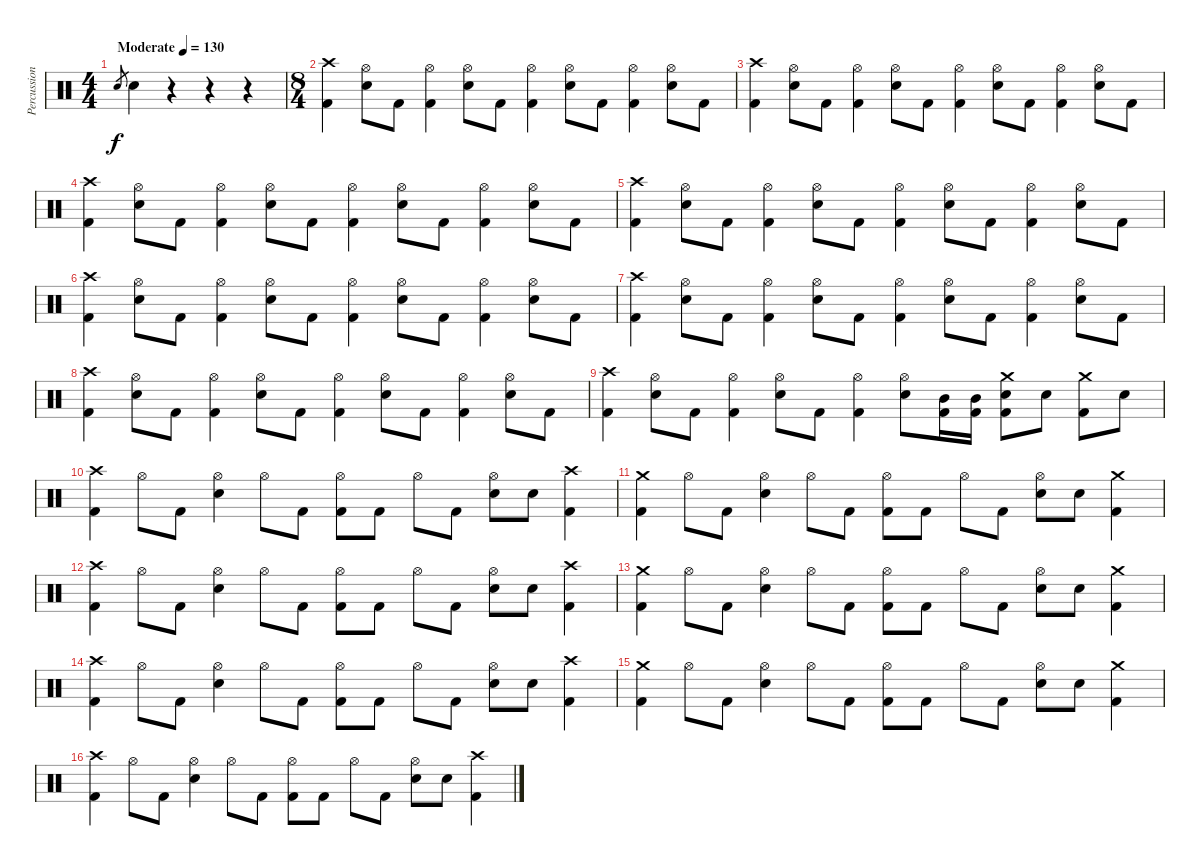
\track ("Percussion" "Percussion") {instrument percussion}
\staff {score}
\articulation defaults
\ts (4 4)
\tempo (130 "Moderate")
\clef neutral
\ks c "Snare (hit) 2".8{gr dy f} "Snare (hit) 2".4
r.4 r.4 r.4 |
\ts (8 4)
("Crash high (hit)" "Kick (hit) 2").4 ("Hi-Hat (open)" "Snare (hit) 2").8 "Kick (hit) 2".8 ("Hi-Hat (open)" "Kick (hit) 2").4 ("Hi-Hat (open)" "Snare (hit) 2").8 "Kick (hit) 2".8 ("Hi-Hat (open)" "Kick (hit) 2").4 ("Hi-Hat (open)" "Snare (hit) 2").8 "Kick (hit) 2".8 ("Hi-Hat (open)" "Kick (hit) 2").4 ("Hi-Hat (open)" "Snare (hit) 2").8 "Kick (hit) 2".8 |
("Crash high (hit)" "Kick (hit) 2").4 ("Hi-Hat (open)" "Snare (hit) 2").8 "Kick (hit) 2".8 ("Hi-Hat (open)" "Kick (hit) 2").4 ("Hi-Hat (open)" "Snare (hit) 2").8 "Kick (hit) 2".8 ("Hi-Hat (open)" "Kick (hit) 2").4 ("Hi-Hat (open)" "Snare (hit) 2").8 "Kick (hit) 2".8 ("Hi-Hat (open)" "Kick (hit) 2").4 ("Hi-Hat (open)" "Snare (hit) 2").8 "Kick (hit) 2".8 |
("Crash high (hit)" "Kick (hit) 2").4 ("Hi-Hat (open)" "Snare (hit) 2").8 "Kick (hit) 2".8 ("Hi-Hat (open)" "Kick (hit) 2").4 ("Hi-Hat (open)" "Snare (hit) 2").8 "Kick (hit) 2".8 ("Hi-Hat (open)" "Kick (hit) 2").4 ("Hi-Hat (open)" "Snare (hit) 2").8 "Kick (hit) 2".8 ("Hi-Hat (open)" "Kick (hit) 2").4 ("Hi-Hat (open)" "Snare (hit) 2").8 "Kick (hit) 2".8 |
("Crash high (hit)" "Kick (hit) 2").4 ("Hi-Hat (open)" "Snare (hit) 2").8 "Kick (hit) 2".8 ("Hi-Hat (open)" "Kick (hit) 2").4 ("Hi-Hat (open)" "Snare (hit) 2").8 "Kick (hit) 2".8 ("Hi-Hat (open)" "Kick (hit) 2").4 ("Hi-Hat (open)" "Snare (hit) 2").8 "Kick (hit) 2".8 ("Hi-Hat (open)" "Kick (hit) 2").4 ("Hi-Hat (open)" "Snare (hit) 2").8 "Kick (hit) 2".8 |
("Crash high (hit)" "Kick (hit) 2").4 ("Hi-Hat (open)" "Snare (hit) 2").8 "Kick (hit) 2".8 ("Hi-Hat (open)" "Kick (hit) 2").4 ("Hi-Hat (open)" "Snare (hit) 2").8 "Kick (hit) 2".8 ("Hi-Hat (open)" "Kick (hit) 2").4 ("Hi-Hat (open)" "Snare (hit) 2").8 "Kick (hit) 2".8 ("Hi-Hat (open)" "Kick (hit) 2").4 ("Hi-Hat (open)" "Snare (hit) 2").8 "Kick (hit) 2".8 |
("Crash high (hit)" "Kick (hit) 2").4 ("Hi-Hat (open)" "Snare (hit) 2").8 "Kick (hit) 2".8 ("Hi-Hat (open)" "Kick (hit) 2").4 ("Hi-Hat (open)" "Snare (hit) 2").8 "Kick (hit) 2".8 ("Hi-Hat (open)" "Kick (hit) 2").4 ("Hi-Hat (open)" "Snare (hit) 2").8 "Kick (hit) 2".8 ("Hi-Hat (open)" "Kick (hit) 2").4 ("Hi-Hat (open)" "Snare (hit) 2").8 "Kick (hit) 2".8 |
("Crash high (hit)" "Kick (hit) 2").4 ("Hi-Hat (open)" "Snare (hit) 2").8 "Kick (hit) 2".8 ("Hi-Hat (open)" "Kick (hit) 2").4 ("Hi-Hat (open)" "Snare (hit) 2").8 "Kick (hit) 2".8 ("Hi-Hat (open)" "Kick (hit) 2").4 ("Hi-Hat (open)" "Snare (hit) 2").8 "Kick (hit) 2".8 ("Hi-Hat (open)" "Kick (hit) 2").4 ("Hi-Hat (open)" "Snare (hit) 2").8 "Kick (hit) 2".8 |
("Crash high (hit)" "Kick (hit) 2").4 ("Hi-Hat (open)" "Snare (hit) 2").8 "Kick (hit) 2".8 ("Hi-Hat (open)" "Kick (hit) 2").4 ("Hi-Hat (open)" "Snare (hit) 2").8 "Kick (hit) 2".8 ("Hi-Hat (open)" "Kick (hit) 2").4 ("Hi-Hat (open)" "Snare (hit) 2").8 ("Mid Tom (hit)" "Kick (hit) 2").16 ("Mid Tom (hit)" "Kick (hit) 2").16 ("Crash medium (hit)" "Snare (hit) 2" "Kick (hit) 2").8 "Snare (hit) 2".8 ("Crash medium (hit)" "Kick (hit) 2").8 "Snare (hit) 2".8 |
("Crash high (hit)" "Kick (hit) 2").4 "Hi-Hat (open)".8 "Kick (hit) 2".8 ("Hi-Hat (open)" "Snare (hit) 2").4 "Hi-Hat (open)".8 "Kick (hit) 2".8 ("Hi-Hat (open)" "Kick (hit) 2").8 "Kick (hit) 2".8 "Hi-Hat (open)".8 "Kick (hit) 2".8 ("Hi-Hat (open)" "Snare (hit) 2").8 "Snare (hit) 2".8 ("Crash high (hit)" "Kick (hit) 2").4 |
("Crash medium (hit)" "Kick (hit) 2").4 "Hi-Hat (open)".8 "Kick (hit) 2".8 ("Hi-Hat (open)" "Snare (hit) 2").4 "Hi-Hat (open)".8 "Kick (hit) 2".8 ("Hi-Hat (open)" "Kick (hit) 2").8 "Kick (hit) 2".8 "Hi-Hat (open)".8 "Kick (hit) 2".8 ("Hi-Hat (open)" "Snare (hit) 2").8 "Snare (hit) 2".8 ("Crash medium (hit)" "Kick (hit) 2").4 |
("Crash high (hit)" "Kick (hit) 2").4 "Hi-Hat (open)".8 "Kick (hit) 2".8 ("Hi-Hat (open)" "Snare (hit) 2").4 "Hi-Hat (open)".8 "Kick (hit) 2".8 ("Hi-Hat (open)" "Kick (hit) 2").8 "Kick (hit) 2".8 "Hi-Hat (open)".8 "Kick (hit) 2".8 ("Hi-Hat (open)" "Snare (hit) 2").8 "Snare (hit) 2".8 ("Crash high (hit)" "Kick (hit) 2").4 |
("Crash medium (hit)" "Kick (hit) 2").4 "Hi-Hat (open)".8 "Kick (hit) 2".8 ("Hi-Hat (open)" "Snare (hit) 2").4 "Hi-Hat (open)".8 "Kick (hit) 2".8 ("Hi-Hat (open)" "Kick (hit) 2").8 "Kick (hit) 2".8 "Hi-Hat (open)".8 "Kick (hit) 2".8 ("Hi-Hat (open)" "Snare (hit) 2").8 "Snare (hit) 2".8 ("Crash medium (hit)" "Kick (hit) 2").4 |
("Crash high (hit)" "Kick (hit) 2").4 "Hi-Hat (open)".8 "Kick (hit) 2".8 ("Hi-Hat (open)" "Snare (hit) 2").4 "Hi-Hat (open)".8 "Kick (hit) 2".8 ("Hi-Hat (open)" "Kick (hit) 2").8 "Kick (hit) 2".8 "Hi-Hat (open)".8 "Kick (hit) 2".8 ("Hi-Hat (open)" "Snare (hit) 2").8 "Snare (hit) 2".8 ("Crash high (hit)" "Kick (hit) 2").4 |
("Crash medium (hit)" "Kick (hit) 2").4 "Hi-Hat (open)".8 "Kick (hit) 2".8 ("Hi-Hat (open)" "Snare (hit) 2").4 "Hi-Hat (open)".8 "Kick (hit) 2".8 ("Hi-Hat (open)" "Kick (hit) 2").8 "Kick (hit) 2".8 "Hi-Hat (open)".8 "Kick (hit) 2".8 ("Hi-Hat (open)" "Snare (hit) 2").8 "Snare (hit) 2".8 ("Crash medium (hit)" "Kick (hit) 2").4 |
("Crash high (hit)" "Kick (hit) 2").4 "Hi-Hat (open)".8 "Kick (hit) 2".8 ("Hi-Hat (open)" "Snare (hit) 2").4 "Hi-Hat (open)".8 "Kick (hit) 2".8 ("Hi-Hat (open)" "Kick (hit) 2").8 "Kick (hit) 2".8 "Hi-Hat (open)".8 "Kick (hit) 2".8 ("Hi-Hat (open)" "Snare (hit) 2").8 "Snare (hit) 2".8 ("Crash high (hit)" "Kick (hit) 2").4
